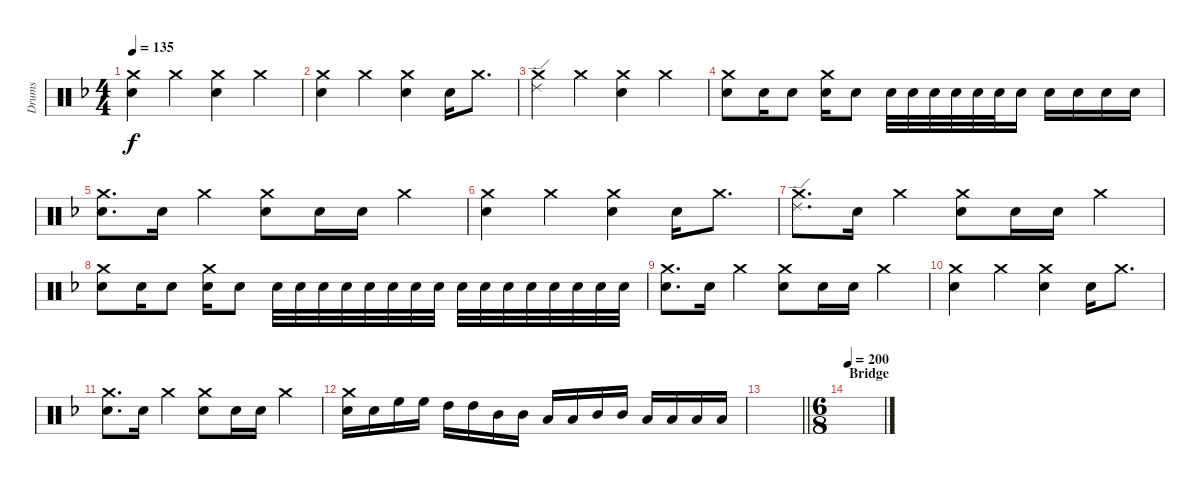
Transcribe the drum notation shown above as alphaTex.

\track ("Drums" "Drums") {instrument percussion}
\staff {score}
\articulation defaults
\ts (4 4)
\tempo 135
\clef neutral
\ks dminor
("Crash medium (hit)" "Snare (hit) 2").4{dy f} "Crash medium (hit)".4 ("Crash medium (hit)" "Snare (hit) 2").4 "Crash medium (hit)".4 |
("Crash medium (hit)" "Snare (hit) 2").4 "Crash medium (hit)".4 ("Crash medium (hit)" "Snare (hit) 2").4 "Snare (hit) 2".16 "Crash medium (hit)".8{d} |
("Ride (edge) 2" "Crash medium (hit)").4 "Crash medium (hit)".4 ("Crash medium (hit)" "Snare (hit) 2").4 "Crash medium (hit)".4 |
("Crash medium (hit)" "Snare (hit) 2").8 "Snare (hit) 2".16 "Snare (hit) 2".8 ("Crash medium (hit)" "Snare (hit) 2").16 "Snare (hit) 2".8 "Snare (hit) 2".32 "Snare (hit) 2".32 "Snare (hit) 2".32 "Snare (hit) 2".32 "Snare (hit) 2".32 "Snare (hit) 2".32 "Snare (hit) 2".16 "Snare (hit) 2".16 "Snare (hit) 2".16 "Snare (hit) 2".16 "Snare (hit) 2".16 |
("Crash medium (hit)" "Snare (hit) 2").8{d} "Snare (hit) 2".16 "Crash medium (hit)".4 ("Crash medium (hit)" "Snare (hit) 2").8 "Snare (hit) 2".16 "Snare (hit) 2".16 "Crash medium (hit)".4 |
("Crash medium (hit)" "Snare (hit) 2").4 "Crash medium (hit)".4 ("Crash medium (hit)" "Snare (hit) 2").4 "Snare (hit) 2".16 "Crash medium (hit)".8{d} |
("Ride (edge) 2" "Crash medium (hit)").8{d} "Snare (hit) 2".16 "Crash medium (hit)".4 ("Crash medium (hit)" "Snare (hit) 2").8 "Snare (hit) 2".16 "Snare (hit) 2".16 "Crash medium (hit)".4 |
("Crash medium (hit)" "Snare (hit) 2").8 "Snare (hit) 2".16 "Snare (hit) 2".8 ("Crash medium (hit)" "Snare (hit) 2").16 "Snare (hit) 2".8 "Snare (hit) 2".32 "Snare (hit) 2".32 "Snare (hit) 2".32 "Snare (hit) 2".32 "Snare (hit) 2".32 "Snare (hit) 2".32 "Snare (hit) 2".32 "Snare (hit) 2".32 "Snare (hit) 2".32 "Snare (hit) 2".32 "Snare (hit) 2".32 "Snare (hit) 2".32 "Snare (hit) 2".32 "Snare (hit) 2".32 "Snare (hit) 2".32 "Snare (hit) 2".32 |
("Crash medium (hit)" "Snare (hit) 2").8{d} "Snare (hit) 2".16 "Crash medium (hit)".4 ("Crash medium (hit)" "Snare (hit) 2").8 "Snare (hit) 2".16 "Snare (hit) 2".16 "Crash medium (hit)".4 |
("Crash medium (hit)" "Snare (hit) 2").4 "Crash medium (hit)".4 ("Crash medium (hit)" "Snare (hit) 2").4 "Snare (hit) 2".16 "Crash medium (hit)".8{d} |
("Crash medium (hit)" "Snare (hit) 2").8{d} "Snare (hit) 2".16 "Crash medium (hit)".4 ("Crash medium (hit)" "Snare (hit) 2").8 "Snare (hit) 2".16 "Snare (hit) 2".16 "Crash medium (hit)".4 |
("Crash medium (hit)" "Snare (hit) 2").16 "Snare (hit) 2".16 "High Floor Tom (hit)".16 "High Floor Tom (hit)".16 "High Tom (hit)".16 "High Tom (hit)".16 "Mid Tom (hit)".16 "Mid Tom (hit)".16 "Low Tom (hit)".16 "Low Tom (hit)".16 "Mid Tom (hit)".16 "Mid Tom (hit)".16 "Low Tom (hit)".16 "Low Tom (hit)".16 "Low Floor Tom (hit)".16 "Low Floor Tom (hit)".16 |
\barLineRight lightlight
|
\ts (6 8)
\section ("" "Bridge")
\tempo 200
